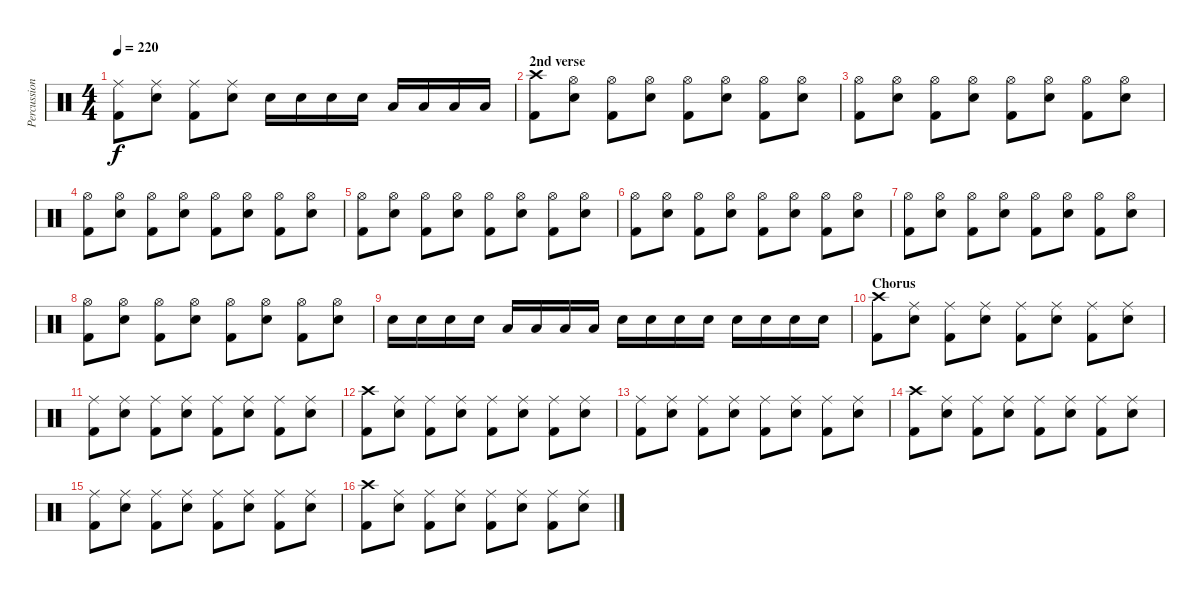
\track ("Percussion" "Percussion") {instrument percussion}
\staff {score}
\articulation defaults
\ts (4 4)
\tempo 220
\clef neutral
\ks c
("Ride (middle)" "Kick (hit) 2").8{dy f} ("Ride (middle)" "Electric Snare (hit)").8 ("Ride (middle)" "Kick (hit) 2").8 ("Ride (middle)" "Electric Snare (hit)").8 "Electric Snare (hit)".16 "Electric Snare (hit)".16 "Electric Snare (hit)".16 "Electric Snare (hit)".16 "Low Tom (hit)".16 "Low Tom (hit)".16 "Low Tom (hit)".16 "Low Tom (hit)".16 |
\section ("" "2nd verse")
("Crash high (hit)" "Kick (hit) 2").8 ("Hi-Hat (open)" "Electric Snare (hit)").8 ("Hi-Hat (open)" "Kick (hit) 2").8 ("Hi-Hat (open)" "Electric Snare (hit)").8 ("Hi-Hat (open)" "Kick (hit) 2").8 ("Hi-Hat (open)" "Electric Snare (hit)").8 ("Hi-Hat (open)" "Kick (hit) 2").8 ("Hi-Hat (open)" "Electric Snare (hit)").8 |
("Hi-Hat (open)" "Kick (hit) 2").8 ("Hi-Hat (open)" "Electric Snare (hit)").8 ("Hi-Hat (open)" "Kick (hit) 2").8 ("Hi-Hat (open)" "Electric Snare (hit)").8 ("Hi-Hat (open)" "Kick (hit) 2").8 ("Hi-Hat (open)" "Electric Snare (hit)").8 ("Hi-Hat (open)" "Kick (hit) 2").8 ("Hi-Hat (open)" "Electric Snare (hit)").8 |
("Hi-Hat (open)" "Kick (hit) 2").8 ("Hi-Hat (open)" "Electric Snare (hit)").8 ("Hi-Hat (open)" "Kick (hit) 2").8 ("Hi-Hat (open)" "Electric Snare (hit)").8 ("Hi-Hat (open)" "Kick (hit) 2").8 ("Hi-Hat (open)" "Electric Snare (hit)").8 ("Hi-Hat (open)" "Kick (hit) 2").8 ("Hi-Hat (open)" "Electric Snare (hit)").8 |
("Hi-Hat (open)" "Kick (hit) 2").8 ("Hi-Hat (open)" "Electric Snare (hit)").8 ("Hi-Hat (open)" "Kick (hit) 2").8 ("Hi-Hat (open)" "Electric Snare (hit)").8 ("Hi-Hat (open)" "Kick (hit) 2").8 ("Hi-Hat (open)" "Electric Snare (hit)").8 ("Hi-Hat (open)" "Kick (hit) 2").8 ("Hi-Hat (open)" "Electric Snare (hit)").8 |
("Hi-Hat (open)" "Kick (hit) 2").8 ("Hi-Hat (open)" "Electric Snare (hit)").8 ("Hi-Hat (open)" "Kick (hit) 2").8 ("Hi-Hat (open)" "Electric Snare (hit)").8 ("Hi-Hat (open)" "Kick (hit) 2").8 ("Hi-Hat (open)" "Electric Snare (hit)").8 ("Hi-Hat (open)" "Kick (hit) 2").8 ("Hi-Hat (open)" "Electric Snare (hit)").8 |
("Hi-Hat (open)" "Kick (hit) 2").8 ("Hi-Hat (open)" "Electric Snare (hit)").8 ("Hi-Hat (open)" "Kick (hit) 2").8 ("Hi-Hat (open)" "Electric Snare (hit)").8 ("Hi-Hat (open)" "Kick (hit) 2").8 ("Hi-Hat (open)" "Electric Snare (hit)").8 ("Hi-Hat (open)" "Kick (hit) 2").8 ("Hi-Hat (open)" "Electric Snare (hit)").8 |
("Hi-Hat (open)" "Kick (hit) 2").8 ("Hi-Hat (open)" "Electric Snare (hit)").8 ("Hi-Hat (open)" "Kick (hit) 2").8 ("Hi-Hat (open)" "Electric Snare (hit)").8 ("Hi-Hat (open)" "Kick (hit) 2").8 ("Hi-Hat (open)" "Electric Snare (hit)").8 ("Hi-Hat (open)" "Kick (hit) 2").8 ("Hi-Hat (open)" "Electric Snare (hit)").8 |
"Electric Snare (hit)".16 "Electric Snare (hit)".16 "Electric Snare (hit)".16 "Electric Snare (hit)".16 "Low Tom (hit)".16 "Low Tom (hit)".16 "Low Tom (hit)".16 "Low Tom (hit)".16 "Electric Snare (hit)".16 "Electric Snare (hit)".16 "Electric Snare (hit)".16 "Electric Snare (hit)".16 "Electric Snare (hit)".16 "Electric Snare (hit)".16 "Electric Snare (hit)".16 "Electric Snare (hit)".16 |
\section ("" "Chorus")
("Crash high (hit)" "Kick (hit) 2").8 ("Ride (middle)" "Electric Snare (hit)").8 ("Ride (middle)" "Kick (hit) 2").8 ("Ride (middle)" "Electric Snare (hit)").8 ("Ride (middle)" "Kick (hit) 2").8 ("Ride (middle)" "Electric Snare (hit)").8 ("Ride (middle)" "Kick (hit) 2").8 ("Ride (middle)" "Electric Snare (hit)").8 |
("Ride (middle)" "Kick (hit) 2").8 ("Ride (middle)" "Electric Snare (hit)").8 ("Ride (middle)" "Kick (hit) 2").8 ("Ride (middle)" "Electric Snare (hit)").8 ("Ride (middle)" "Kick (hit) 2").8 ("Ride (middle)" "Electric Snare (hit)").8 ("Ride (middle)" "Kick (hit) 2").8 ("Ride (middle)" "Electric Snare (hit)").8 |
("Crash high (hit)" "Kick (hit) 2").8 ("Ride (middle)" "Electric Snare (hit)").8 ("Ride (middle)" "Kick (hit) 2").8 ("Ride (middle)" "Electric Snare (hit)").8 ("Ride (middle)" "Kick (hit) 2").8 ("Ride (middle)" "Electric Snare (hit)").8 ("Ride (middle)" "Kick (hit) 2").8 ("Ride (middle)" "Electric Snare (hit)").8 |
("Ride (middle)" "Kick (hit) 2").8 ("Ride (middle)" "Electric Snare (hit)").8 ("Ride (middle)" "Kick (hit) 2").8 ("Ride (middle)" "Electric Snare (hit)").8 ("Ride (middle)" "Kick (hit) 2").8 ("Ride (middle)" "Electric Snare (hit)").8 ("Ride (middle)" "Kick (hit) 2").8 ("Ride (middle)" "Electric Snare (hit)").8 |
("Crash high (hit)" "Kick (hit) 2").8 ("Ride (middle)" "Electric Snare (hit)").8 ("Ride (middle)" "Kick (hit) 2").8 ("Ride (middle)" "Electric Snare (hit)").8 ("Ride (middle)" "Kick (hit) 2").8 ("Ride (middle)" "Electric Snare (hit)").8 ("Ride (middle)" "Kick (hit) 2").8 ("Ride (middle)" "Electric Snare (hit)").8 |
("Ride (middle)" "Kick (hit) 2").8 ("Ride (middle)" "Electric Snare (hit)").8 ("Ride (middle)" "Kick (hit) 2").8 ("Ride (middle)" "Electric Snare (hit)").8 ("Ride (middle)" "Kick (hit) 2").8 ("Ride (middle)" "Electric Snare (hit)").8 ("Ride (middle)" "Kick (hit) 2").8 ("Ride (middle)" "Electric Snare (hit)").8 |
("Crash high (hit)" "Kick (hit) 2").8 ("Ride (middle)" "Electric Snare (hit)").8 ("Ride (middle)" "Kick (hit) 2").8 ("Ride (middle)" "Electric Snare (hit)").8 ("Ride (middle)" "Kick (hit) 2").8 ("Ride (middle)" "Electric Snare (hit)").8 ("Ride (middle)" "Kick (hit) 2").8 ("Ride (middle)" "Electric Snare (hit)").8
